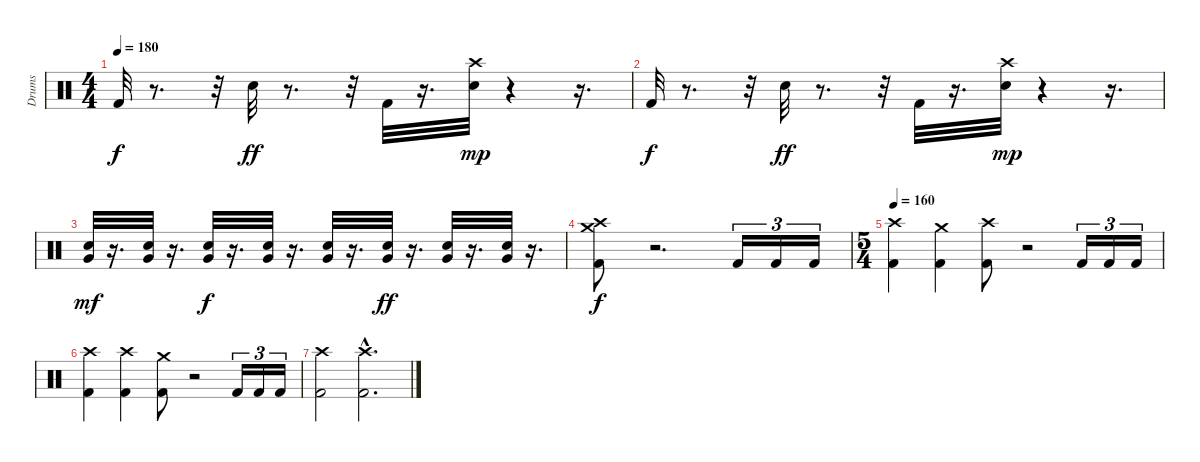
\track ("Drums" "Drums") {instrument percussion}
\staff {score}
\articulation defaults
\ts (4 4)
\tempo 180
\clef neutral
\ks c "Kick (hit) 2".32{dy f}
r.8{d} r.32 "Snare (hit) 2".32{dy ff} r.8{d} r.32 "Kick (hit) 2".32 r.16{d} ("Snare (hit) 2" "Crash high (hit)").32{dy mp} r.4 r.16{d} |
"Kick (hit) 2".32{dy f} r.8{d} r.32 "Snare (hit) 2".32{dy ff} r.8{d} r.32 "Kick (hit) 2".32 r.16{d} ("Snare (hit) 2" "Crash high (hit)").32{dy mp} r.4 r.16{d} |
("Very Low Tom (hit)" "Snare (hit) 2").32{dy mf} r.16{d} ("Very Low Tom (hit)" "Snare (hit) 2").32 r.16{d} ("Very Low Tom (hit)" "Snare (hit) 2").32{dy f} r.16{d} ("Very Low Tom (hit)" "Snare (hit) 2").32 r.16{d} ("Very Low Tom (hit)" "Snare (hit) 2").32 r.16{d} ("Very Low Tom (hit)" "Snare (hit) 2").32{dy ff} r.16{d} ("Very Low Tom (hit)" "Snare (hit) 2").32 r.16{d} ("Very Low Tom (hit)" "Snare (hit) 2").32 r.16{d} |
("Crash medium (hit)" "Crash high (hit)" "Kick (hit) 2").8{dy f} r.2{d} "Kick (hit) 2".16{tu (3 2)} "Kick (hit) 2".16{tu (3 2)} "Kick (hit) 2".16{tu (3 2)} |
\ts (5 4)
\tempo 160
("Crash high (hit)" "Kick (hit) 2").4 ("Crash medium (hit)" "Kick (hit) 2").4 ("Crash high (hit)" "Kick (hit) 2").8 r.2 "Kick (hit) 2".16{tu (3 2)} "Kick (hit) 2".16{tu (3 2)} "Kick (hit) 2".16{tu (3 2)} |
("Crash high (hit)" "Kick (hit) 2").4 ("Crash high (hit)" "Kick (hit) 2").4 ("Crash medium (hit)" "Kick (hit) 2").8 r.2 "Kick (hit) 2".16{tu (3 2)} "Kick (hit) 2".16{tu (3 2)} "Kick (hit) 2".16{tu (3 2)} |
("Crash high (hit)" "Kick (hit) 2").2 ("Crash high (hit)"{hac} "Kick (hit) 2"{hac}).2{d}
